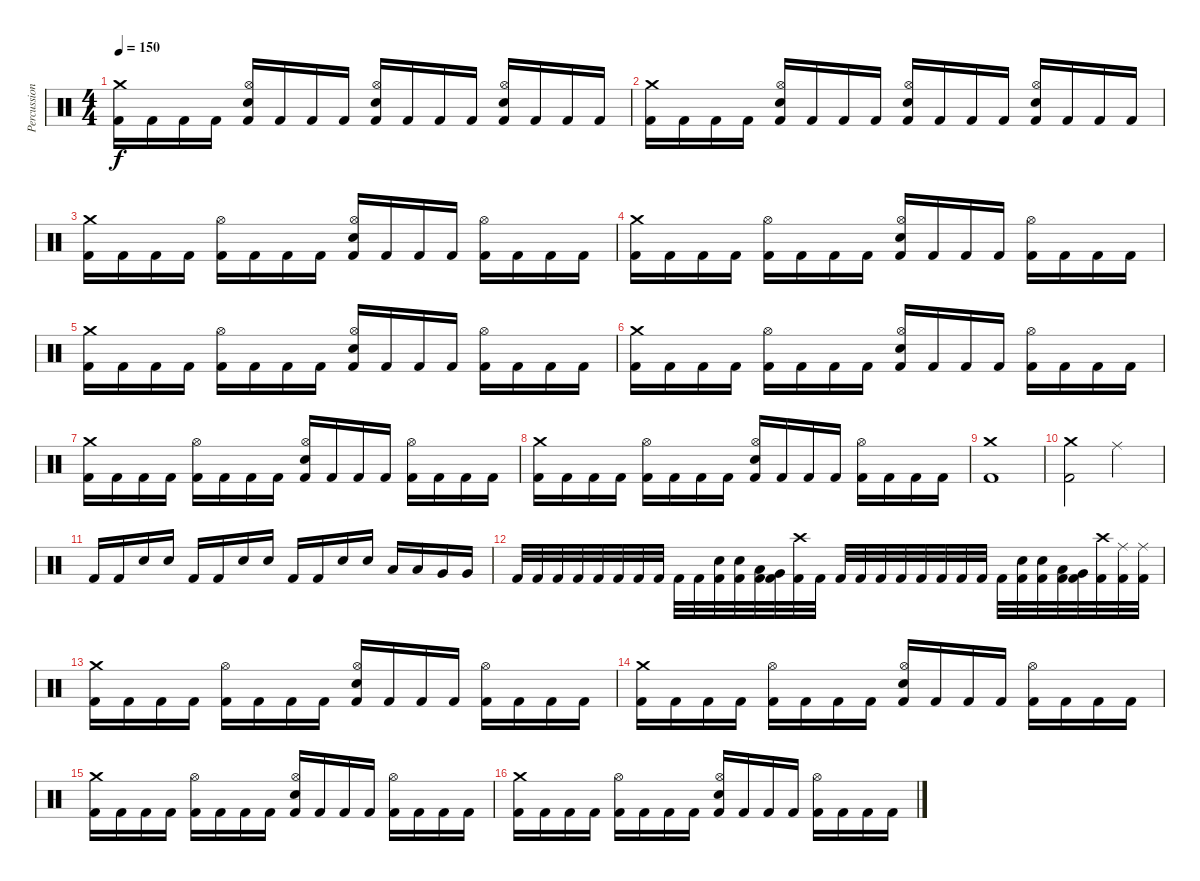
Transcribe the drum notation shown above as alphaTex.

\track ("Percussion" "Percussion") {instrument percussion}
\staff {score}
\articulation defaults
\ts (4 4)
\tempo 150
\clef neutral
\ks c
("Crash medium (hit)" "Kick (hit) 2").16{dy f} "Kick (hit) 2".16 "Kick (hit) 2".16 "Kick (hit) 2".16 ("Hi-Hat (open)" "Snare (hit) 2" "Kick (hit) 2").16 "Kick (hit) 2".16 "Kick (hit) 2".16 "Kick (hit) 2".16 ("Hi-Hat (open)" "Snare (hit) 2" "Kick (hit) 2").16 "Kick (hit) 2".16 "Kick (hit) 2".16 "Kick (hit) 2".16 ("Hi-Hat (open)" "Snare (hit) 2" "Kick (hit) 2").16 "Kick (hit) 2".16 "Kick (hit) 2".16 "Kick (hit) 2".16 |
("Crash medium (hit)" "Kick (hit) 2").16 "Kick (hit) 2".16 "Kick (hit) 2".16 "Kick (hit) 2".16 ("Hi-Hat (open)" "Snare (hit) 2" "Kick (hit) 2").16 "Kick (hit) 2".16 "Kick (hit) 2".16 "Kick (hit) 2".16 ("Hi-Hat (open)" "Snare (hit) 2" "Kick (hit) 2").16 "Kick (hit) 2".16 "Kick (hit) 2".16 "Kick (hit) 2".16 ("Hi-Hat (open)" "Snare (hit) 2" "Kick (hit) 2").16 "Kick (hit) 2".16 "Kick (hit) 2".16 "Kick (hit) 2".16 |
("Crash medium (hit)" "Kick (hit) 2").16 "Kick (hit) 2".16 "Kick (hit) 2".16 "Kick (hit) 2".16 ("Hi-Hat (open)" "Kick (hit) 2").16 "Kick (hit) 2".16 "Kick (hit) 2".16 "Kick (hit) 2".16 ("Hi-Hat (open)" "Snare (hit) 2" "Kick (hit) 2").16 "Kick (hit) 2".16 "Kick (hit) 2".16 "Kick (hit) 2".16 ("Hi-Hat (open)" "Kick (hit) 2").16 "Kick (hit) 2".16 "Kick (hit) 2".16 "Kick (hit) 2".16 |
("Crash medium (hit)" "Kick (hit) 2").16 "Kick (hit) 2".16 "Kick (hit) 2".16 "Kick (hit) 2".16 ("Hi-Hat (open)" "Kick (hit) 2").16 "Kick (hit) 2".16 "Kick (hit) 2".16 "Kick (hit) 2".16 ("Hi-Hat (open)" "Snare (hit) 2" "Kick (hit) 2").16 "Kick (hit) 2".16 "Kick (hit) 2".16 "Kick (hit) 2".16 ("Hi-Hat (open)" "Kick (hit) 2").16 "Kick (hit) 2".16 "Kick (hit) 2".16 "Kick (hit) 2".16 |
("Crash medium (hit)" "Kick (hit) 2").16 "Kick (hit) 2".16 "Kick (hit) 2".16 "Kick (hit) 2".16 ("Hi-Hat (open)" "Kick (hit) 2").16 "Kick (hit) 2".16 "Kick (hit) 2".16 "Kick (hit) 2".16 ("Hi-Hat (open)" "Snare (hit) 2" "Kick (hit) 2").16 "Kick (hit) 2".16 "Kick (hit) 2".16 "Kick (hit) 2".16 ("Hi-Hat (open)" "Kick (hit) 2").16 "Kick (hit) 2".16 "Kick (hit) 2".16 "Kick (hit) 2".16 |
("Crash medium (hit)" "Kick (hit) 2").16 "Kick (hit) 2".16 "Kick (hit) 2".16 "Kick (hit) 2".16 ("Hi-Hat (open)" "Kick (hit) 2").16 "Kick (hit) 2".16 "Kick (hit) 2".16 "Kick (hit) 2".16 ("Hi-Hat (open)" "Snare (hit) 2" "Kick (hit) 2").16 "Kick (hit) 2".16 "Kick (hit) 2".16 "Kick (hit) 2".16 ("Hi-Hat (open)" "Kick (hit) 2").16 "Kick (hit) 2".16 "Kick (hit) 2".16 "Kick (hit) 2".16 |
("Crash medium (hit)" "Kick (hit) 2").16 "Kick (hit) 2".16 "Kick (hit) 2".16 "Kick (hit) 2".16 ("Hi-Hat (open)" "Kick (hit) 2").16 "Kick (hit) 2".16 "Kick (hit) 2".16 "Kick (hit) 2".16 ("Hi-Hat (open)" "Snare (hit) 2" "Kick (hit) 2").16 "Kick (hit) 2".16 "Kick (hit) 2".16 "Kick (hit) 2".16 ("Hi-Hat (open)" "Kick (hit) 2").16 "Kick (hit) 2".16 "Kick (hit) 2".16 "Kick (hit) 2".16 |
("Crash medium (hit)" "Kick (hit) 2").16 "Kick (hit) 2".16 "Kick (hit) 2".16 "Kick (hit) 2".16 ("Hi-Hat (open)" "Kick (hit) 2").16 "Kick (hit) 2".16 "Kick (hit) 2".16 "Kick (hit) 2".16 ("Hi-Hat (open)" "Snare (hit) 2" "Kick (hit) 2").16 "Kick (hit) 2".16 "Kick (hit) 2".16 "Kick (hit) 2".16 ("Hi-Hat (open)" "Kick (hit) 2").16 "Kick (hit) 2".16 "Kick (hit) 2".16 "Kick (hit) 2".16 |
("Crash medium (hit)" "Kick (hit) 2").1 |
("Crash medium (hit)" "Kick (hit) 2").2 "Ride (middle)".2 |
"Kick (hit) 2".16 "Kick (hit) 2".16 "Snare (hit) 2".16 "Snare (hit) 2".16 "Kick (hit) 2".16 "Kick (hit) 2".16 "Snare (hit) 2".16 "Snare (hit) 2".16 "Kick (hit) 2".16 "Kick (hit) 2".16 "Snare (hit) 2".16 "Snare (hit) 2".16 "Low Tom (hit)".16 "Low Tom (hit)".16 "Very Low Tom (hit)".16 "Very Low Tom (hit)".16 |
"Kick (hit) 2".32 "Kick (hit) 2".32 "Kick (hit) 2".32 "Kick (hit) 2".32 "Kick (hit) 2".32 "Kick (hit) 2".32 "Kick (hit) 2".32 "Kick (hit) 2".32 "Kick (hit) 2".32 "Kick (hit) 2".32 ("Snare (hit) 2" "Kick (hit) 2").32 ("Snare (hit) 2" "Kick (hit) 2").32 ("Low Tom (hit)" "Kick (hit) 2").32 ("Very Low Tom (hit)" "Kick (hit) 2").32 ("Crash high (hit)" "Kick (hit) 2").32 "Kick (hit) 2".32 "Kick (hit) 2".32 "Kick (hit) 2".32 "Kick (hit) 2".32 "Kick (hit) 2".32 "Kick (hit) 2".32 "Kick (hit) 2".32 "Kick (hit) 2".32 "Kick (hit) 2".32 "Kick (hit) 2".32 ("Snare (hit) 2" "Kick (hit) 2").32 ("Snare (hit) 2" "Kick (hit) 2").32 ("Low Tom (hit)" "Kick (hit) 2").32 ("Very Low Tom (hit)" "Kick (hit) 2").32 ("Crash high (hit)" "Kick (hit) 2").32 ("Ride (middle)" "Kick (hit) 2").32 ("Ride (middle)" "Kick (hit) 2").32 |
("Crash medium (hit)" "Kick (hit) 2").16 "Kick (hit) 2".16 "Kick (hit) 2".16 "Kick (hit) 2".16 ("Hi-Hat (open)" "Kick (hit) 2").16 "Kick (hit) 2".16 "Kick (hit) 2".16 "Kick (hit) 2".16 ("Hi-Hat (open)" "Snare (hit) 2" "Kick (hit) 2").16 "Kick (hit) 2".16 "Kick (hit) 2".16 "Kick (hit) 2".16 ("Hi-Hat (open)" "Kick (hit) 2").16 "Kick (hit) 2".16 "Kick (hit) 2".16 "Kick (hit) 2".16 |
("Crash medium (hit)" "Kick (hit) 2").16 "Kick (hit) 2".16 "Kick (hit) 2".16 "Kick (hit) 2".16 ("Hi-Hat (open)" "Kick (hit) 2").16 "Kick (hit) 2".16 "Kick (hit) 2".16 "Kick (hit) 2".16 ("Hi-Hat (open)" "Snare (hit) 2" "Kick (hit) 2").16 "Kick (hit) 2".16 "Kick (hit) 2".16 "Kick (hit) 2".16 ("Hi-Hat (open)" "Kick (hit) 2").16 "Kick (hit) 2".16 "Kick (hit) 2".16 "Kick (hit) 2".16 |
("Crash medium (hit)" "Kick (hit) 2").16 "Kick (hit) 2".16 "Kick (hit) 2".16 "Kick (hit) 2".16 ("Hi-Hat (open)" "Kick (hit) 2").16 "Kick (hit) 2".16 "Kick (hit) 2".16 "Kick (hit) 2".16 ("Hi-Hat (open)" "Snare (hit) 2" "Kick (hit) 2").16 "Kick (hit) 2".16 "Kick (hit) 2".16 "Kick (hit) 2".16 ("Hi-Hat (open)" "Kick (hit) 2").16 "Kick (hit) 2".16 "Kick (hit) 2".16 "Kick (hit) 2".16 |
("Crash medium (hit)" "Kick (hit) 2").16 "Kick (hit) 2".16 "Kick (hit) 2".16 "Kick (hit) 2".16 ("Hi-Hat (open)" "Kick (hit) 2").16 "Kick (hit) 2".16 "Kick (hit) 2".16 "Kick (hit) 2".16 ("Hi-Hat (open)" "Snare (hit) 2" "Kick (hit) 2").16 "Kick (hit) 2".16 "Kick (hit) 2".16 "Kick (hit) 2".16 ("Hi-Hat (open)" "Kick (hit) 2").16 "Kick (hit) 2".16 "Kick (hit) 2".16 "Kick (hit) 2".16
